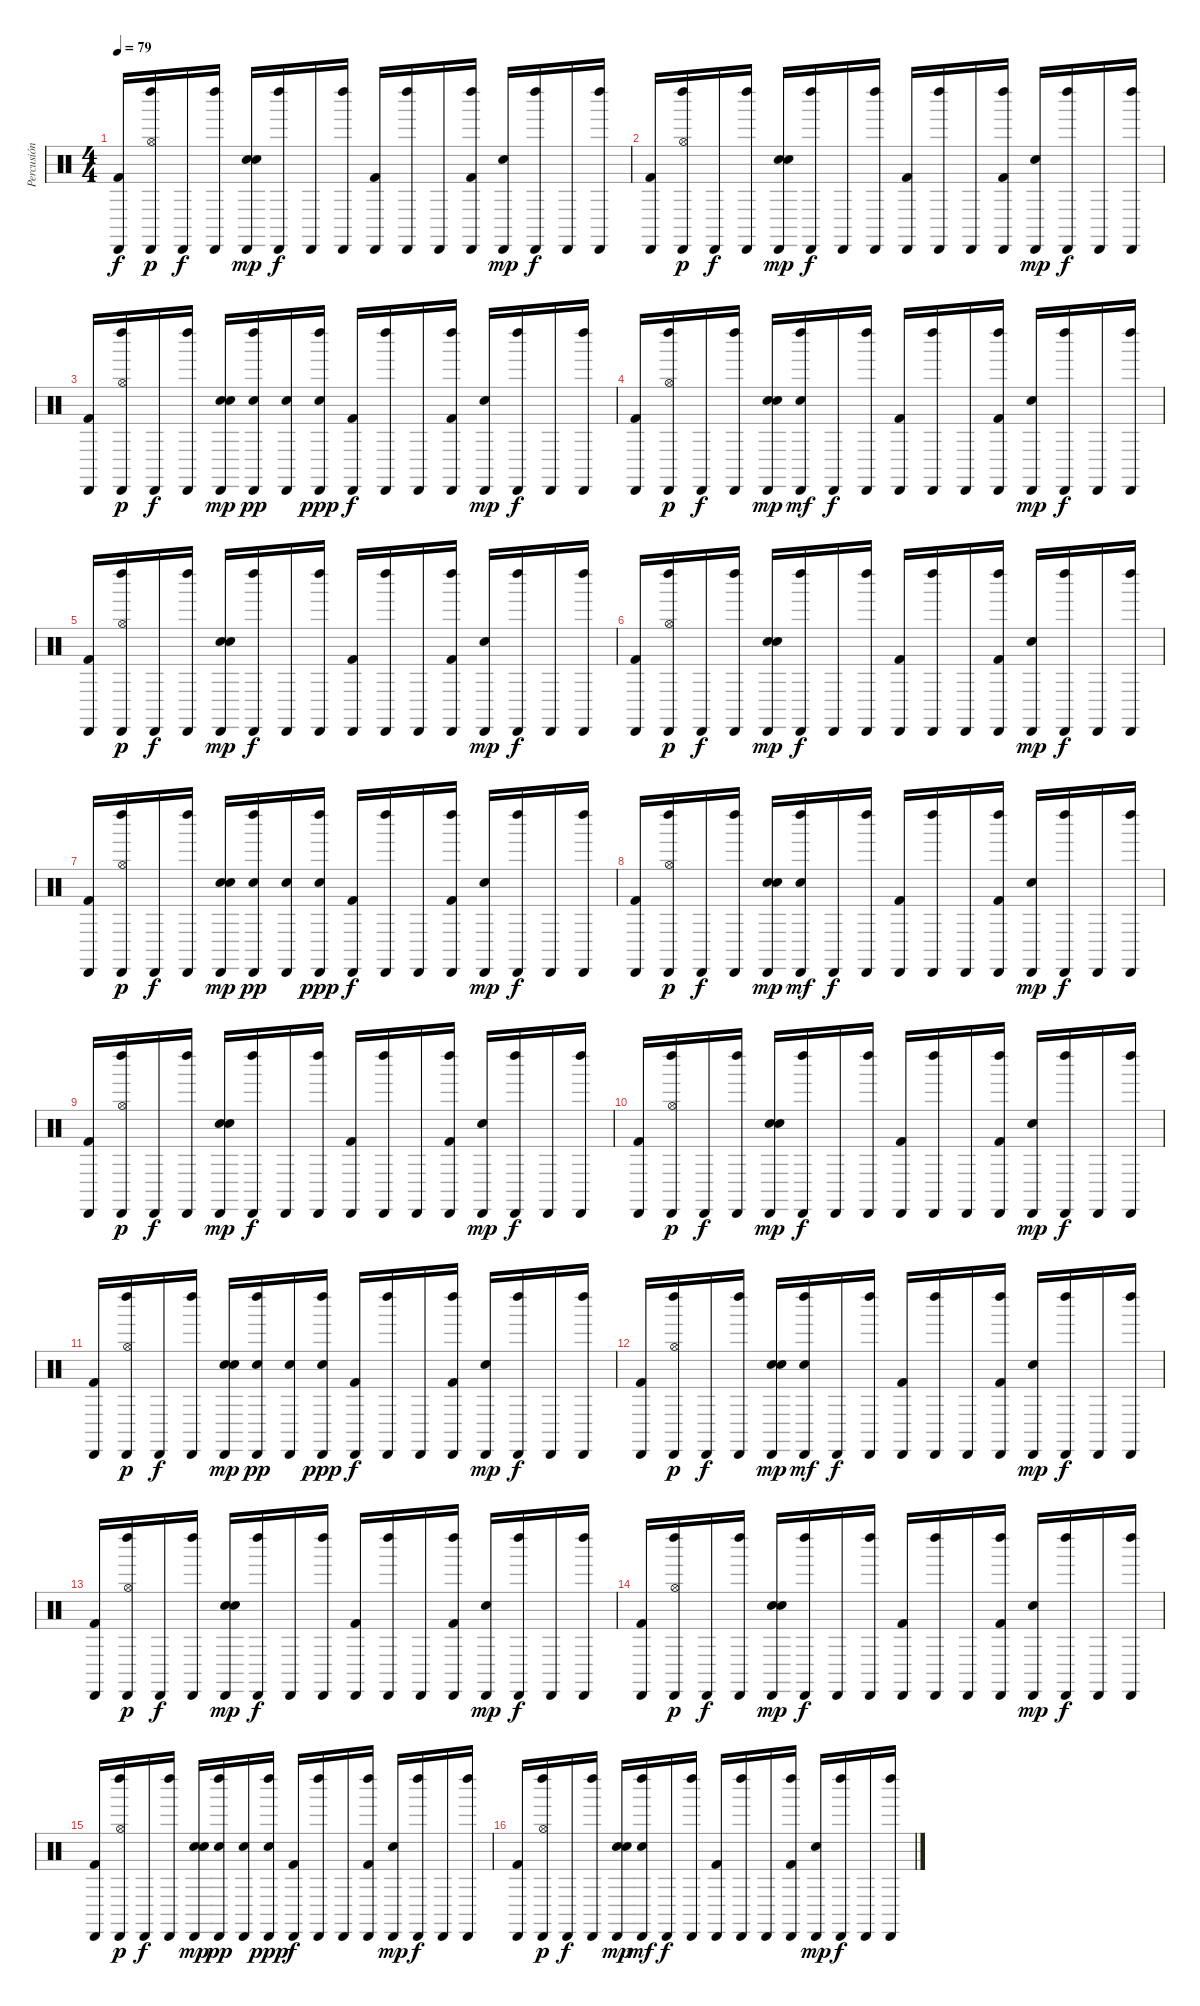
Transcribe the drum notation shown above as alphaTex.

\track ("Percusión" "Percusión") {instrument percussion}
\staff {score}
\articulation defaults
\ts (4 4)
\tempo 79
\clef neutral
\ks c
("Cabasa (hit)" "Kick (hit) 2").16{dy f} ("Cabasa (hit)" "Left Maraca (hit)" "Hi-Hat (open)").16{dy p} "Cabasa (hit)".16{dy f} ("Cabasa (hit)" "Left Maraca (hit)").16 ("Cabasa (hit)" "Electric Snare (hit)" "Snare (hit) 2").16{dy mp} ("Cabasa (hit)" "Left Maraca (hit)").16{dy f} "Cabasa (hit)".16 ("Cabasa (hit)" "Left Maraca (hit)").16 ("Cabasa (hit)" "Kick (hit) 2").16 ("Cabasa (hit)" "Left Maraca (hit)").16 "Cabasa (hit)".16 ("Cabasa (hit)" "Left Maraca (hit)" "Kick (hit) 2").16 ("Cabasa (hit)" "Electric Snare (hit)").16{dy mp} ("Cabasa (hit)" "Left Maraca (hit)").16{dy f} "Cabasa (hit)".16 ("Cabasa (hit)" "Left Maraca (hit)").16 |
("Cabasa (hit)" "Kick (hit) 2").16 ("Cabasa (hit)" "Left Maraca (hit)" "Hi-Hat (open)").16{dy p} "Cabasa (hit)".16{dy f} ("Cabasa (hit)" "Left Maraca (hit)").16 ("Cabasa (hit)" "Electric Snare (hit)" "Snare (hit) 2").16{dy mp} ("Cabasa (hit)" "Left Maraca (hit)").16{dy f} "Cabasa (hit)".16 ("Cabasa (hit)" "Left Maraca (hit)").16 ("Cabasa (hit)" "Kick (hit) 2").16 ("Cabasa (hit)" "Left Maraca (hit)").16 "Cabasa (hit)".16 ("Cabasa (hit)" "Left Maraca (hit)" "Kick (hit) 2").16 ("Cabasa (hit)" "Electric Snare (hit)").16{dy mp} ("Cabasa (hit)" "Left Maraca (hit)").16{dy f} "Cabasa (hit)".16 ("Cabasa (hit)" "Left Maraca (hit)").16 |
("Cabasa (hit)" "Kick (hit) 2").16 ("Cabasa (hit)" "Left Maraca (hit)" "Hi-Hat (open)").16{dy p} "Cabasa (hit)".16{dy f} ("Cabasa (hit)" "Left Maraca (hit)").16 ("Cabasa (hit)" "Electric Snare (hit)" "Snare (hit) 2").16{dy mp} ("Cabasa (hit)" "Left Maraca (hit)" "Electric Snare (hit)").16{dy pp} ("Cabasa (hit)" "Electric Snare (hit)").16 ("Cabasa (hit)" "Left Maraca (hit)" "Electric Snare (hit)").16{dy ppp} ("Cabasa (hit)" "Kick (hit) 2").16{dy f} ("Cabasa (hit)" "Left Maraca (hit)").16 "Cabasa (hit)".16 ("Cabasa (hit)" "Left Maraca (hit)" "Kick (hit) 2").16 ("Cabasa (hit)" "Electric Snare (hit)").16{dy mp} ("Cabasa (hit)" "Left Maraca (hit)").16{dy f} "Cabasa (hit)".16 ("Cabasa (hit)" "Left Maraca (hit)").16 |
("Cabasa (hit)" "Kick (hit) 2").16 ("Cabasa (hit)" "Left Maraca (hit)" "Hi-Hat (open)").16{dy p} "Cabasa (hit)".16{dy f} ("Cabasa (hit)" "Left Maraca (hit)").16 ("Cabasa (hit)" "Electric Snare (hit)" "Snare (hit) 2").16{dy mp} ("Cabasa (hit)" "Left Maraca (hit)" "Electric Snare (hit)").16{dy mf} "Cabasa (hit)".16{dy f} ("Cabasa (hit)" "Left Maraca (hit)").16 ("Cabasa (hit)" "Kick (hit) 2").16 ("Cabasa (hit)" "Left Maraca (hit)").16 "Cabasa (hit)".16 ("Cabasa (hit)" "Left Maraca (hit)" "Kick (hit) 2").16 ("Cabasa (hit)" "Electric Snare (hit)").16{dy mp} ("Cabasa (hit)" "Left Maraca (hit)").16{dy f} "Cabasa (hit)".16 ("Cabasa (hit)" "Left Maraca (hit)").16 |
("Cabasa (hit)" "Kick (hit) 2").16 ("Cabasa (hit)" "Left Maraca (hit)" "Hi-Hat (open)").16{dy p} "Cabasa (hit)".16{dy f} ("Cabasa (hit)" "Left Maraca (hit)").16 ("Cabasa (hit)" "Electric Snare (hit)" "Snare (hit) 2").16{dy mp} ("Cabasa (hit)" "Left Maraca (hit)").16{dy f} "Cabasa (hit)".16 ("Cabasa (hit)" "Left Maraca (hit)").16 ("Cabasa (hit)" "Kick (hit) 2").16 ("Cabasa (hit)" "Left Maraca (hit)").16 "Cabasa (hit)".16 ("Cabasa (hit)" "Left Maraca (hit)" "Kick (hit) 2").16 ("Cabasa (hit)" "Electric Snare (hit)").16{dy mp} ("Cabasa (hit)" "Left Maraca (hit)").16{dy f} "Cabasa (hit)".16 ("Cabasa (hit)" "Left Maraca (hit)").16 |
("Cabasa (hit)" "Kick (hit) 2").16 ("Cabasa (hit)" "Left Maraca (hit)" "Hi-Hat (open)").16{dy p} "Cabasa (hit)".16{dy f} ("Cabasa (hit)" "Left Maraca (hit)").16 ("Cabasa (hit)" "Electric Snare (hit)" "Snare (hit) 2").16{dy mp} ("Cabasa (hit)" "Left Maraca (hit)").16{dy f} "Cabasa (hit)".16 ("Cabasa (hit)" "Left Maraca (hit)").16 ("Cabasa (hit)" "Kick (hit) 2").16 ("Cabasa (hit)" "Left Maraca (hit)").16 "Cabasa (hit)".16 ("Cabasa (hit)" "Left Maraca (hit)" "Kick (hit) 2").16 ("Cabasa (hit)" "Electric Snare (hit)").16{dy mp} ("Cabasa (hit)" "Left Maraca (hit)").16{dy f} "Cabasa (hit)".16 ("Cabasa (hit)" "Left Maraca (hit)").16 |
("Cabasa (hit)" "Kick (hit) 2").16 ("Cabasa (hit)" "Left Maraca (hit)" "Hi-Hat (open)").16{dy p} "Cabasa (hit)".16{dy f} ("Cabasa (hit)" "Left Maraca (hit)").16 ("Cabasa (hit)" "Electric Snare (hit)" "Snare (hit) 2").16{dy mp} ("Cabasa (hit)" "Left Maraca (hit)" "Electric Snare (hit)").16{dy pp} ("Cabasa (hit)" "Electric Snare (hit)").16 ("Cabasa (hit)" "Left Maraca (hit)" "Electric Snare (hit)").16{dy ppp} ("Cabasa (hit)" "Kick (hit) 2").16{dy f} ("Cabasa (hit)" "Left Maraca (hit)").16 "Cabasa (hit)".16 ("Cabasa (hit)" "Left Maraca (hit)" "Kick (hit) 2").16 ("Cabasa (hit)" "Electric Snare (hit)").16{dy mp} ("Cabasa (hit)" "Left Maraca (hit)").16{dy f} "Cabasa (hit)".16 ("Cabasa (hit)" "Left Maraca (hit)").16 |
("Cabasa (hit)" "Kick (hit) 2").16 ("Cabasa (hit)" "Left Maraca (hit)" "Hi-Hat (open)").16{dy p} "Cabasa (hit)".16{dy f} ("Cabasa (hit)" "Left Maraca (hit)").16 ("Cabasa (hit)" "Electric Snare (hit)" "Snare (hit) 2").16{dy mp} ("Cabasa (hit)" "Left Maraca (hit)" "Electric Snare (hit)").16{dy mf} "Cabasa (hit)".16{dy f} ("Cabasa (hit)" "Left Maraca (hit)").16 ("Cabasa (hit)" "Kick (hit) 2").16 ("Cabasa (hit)" "Left Maraca (hit)").16 "Cabasa (hit)".16 ("Cabasa (hit)" "Left Maraca (hit)" "Kick (hit) 2").16 ("Cabasa (hit)" "Electric Snare (hit)").16{dy mp} ("Cabasa (hit)" "Left Maraca (hit)").16{dy f} "Cabasa (hit)".16 ("Cabasa (hit)" "Left Maraca (hit)").16 |
("Cabasa (hit)" "Kick (hit) 2").16 ("Cabasa (hit)" "Left Maraca (hit)" "Hi-Hat (open)").16{dy p} "Cabasa (hit)".16{dy f} ("Cabasa (hit)" "Left Maraca (hit)").16 ("Cabasa (hit)" "Electric Snare (hit)" "Snare (hit) 2").16{dy mp} ("Cabasa (hit)" "Left Maraca (hit)").16{dy f} "Cabasa (hit)".16 ("Cabasa (hit)" "Left Maraca (hit)").16 ("Cabasa (hit)" "Kick (hit) 2").16 ("Cabasa (hit)" "Left Maraca (hit)").16 "Cabasa (hit)".16 ("Cabasa (hit)" "Left Maraca (hit)" "Kick (hit) 2").16 ("Cabasa (hit)" "Electric Snare (hit)").16{dy mp} ("Cabasa (hit)" "Left Maraca (hit)").16{dy f} "Cabasa (hit)".16 ("Cabasa (hit)" "Left Maraca (hit)").16 |
("Cabasa (hit)" "Kick (hit) 2").16 ("Cabasa (hit)" "Left Maraca (hit)" "Hi-Hat (open)").16{dy p} "Cabasa (hit)".16{dy f} ("Cabasa (hit)" "Left Maraca (hit)").16 ("Cabasa (hit)" "Electric Snare (hit)" "Snare (hit) 2").16{dy mp} ("Cabasa (hit)" "Left Maraca (hit)").16{dy f} "Cabasa (hit)".16 ("Cabasa (hit)" "Left Maraca (hit)").16 ("Cabasa (hit)" "Kick (hit) 2").16 ("Cabasa (hit)" "Left Maraca (hit)").16 "Cabasa (hit)".16 ("Cabasa (hit)" "Left Maraca (hit)" "Kick (hit) 2").16 ("Cabasa (hit)" "Electric Snare (hit)").16{dy mp} ("Cabasa (hit)" "Left Maraca (hit)").16{dy f} "Cabasa (hit)".16 ("Cabasa (hit)" "Left Maraca (hit)").16 |
("Cabasa (hit)" "Kick (hit) 2").16 ("Cabasa (hit)" "Left Maraca (hit)" "Hi-Hat (open)").16{dy p} "Cabasa (hit)".16{dy f} ("Cabasa (hit)" "Left Maraca (hit)").16 ("Cabasa (hit)" "Electric Snare (hit)" "Snare (hit) 2").16{dy mp} ("Cabasa (hit)" "Left Maraca (hit)" "Electric Snare (hit)").16{dy pp} ("Cabasa (hit)" "Electric Snare (hit)").16 ("Cabasa (hit)" "Left Maraca (hit)" "Electric Snare (hit)").16{dy ppp} ("Cabasa (hit)" "Kick (hit) 2").16{dy f} ("Cabasa (hit)" "Left Maraca (hit)").16 "Cabasa (hit)".16 ("Cabasa (hit)" "Left Maraca (hit)" "Kick (hit) 2").16 ("Cabasa (hit)" "Electric Snare (hit)").16{dy mp} ("Cabasa (hit)" "Left Maraca (hit)").16{dy f} "Cabasa (hit)".16 ("Cabasa (hit)" "Left Maraca (hit)").16 |
("Cabasa (hit)" "Kick (hit) 2").16 ("Cabasa (hit)" "Left Maraca (hit)" "Hi-Hat (open)").16{dy p} "Cabasa (hit)".16{dy f} ("Cabasa (hit)" "Left Maraca (hit)").16 ("Cabasa (hit)" "Electric Snare (hit)" "Snare (hit) 2").16{dy mp} ("Cabasa (hit)" "Left Maraca (hit)" "Electric Snare (hit)").16{dy mf} "Cabasa (hit)".16{dy f} ("Cabasa (hit)" "Left Maraca (hit)").16 ("Cabasa (hit)" "Kick (hit) 2").16 ("Cabasa (hit)" "Left Maraca (hit)").16 "Cabasa (hit)".16 ("Cabasa (hit)" "Left Maraca (hit)" "Kick (hit) 2").16 ("Cabasa (hit)" "Electric Snare (hit)").16{dy mp} ("Cabasa (hit)" "Left Maraca (hit)").16{dy f} "Cabasa (hit)".16 ("Cabasa (hit)" "Left Maraca (hit)").16 |
("Cabasa (hit)" "Kick (hit) 2").16 ("Cabasa (hit)" "Left Maraca (hit)" "Hi-Hat (open)").16{dy p} "Cabasa (hit)".16{dy f} ("Cabasa (hit)" "Left Maraca (hit)").16 ("Cabasa (hit)" "Electric Snare (hit)" "Snare (hit) 2").16{dy mp} ("Cabasa (hit)" "Left Maraca (hit)").16{dy f} "Cabasa (hit)".16 ("Cabasa (hit)" "Left Maraca (hit)").16 ("Cabasa (hit)" "Kick (hit) 2").16 ("Cabasa (hit)" "Left Maraca (hit)").16 "Cabasa (hit)".16 ("Cabasa (hit)" "Left Maraca (hit)" "Kick (hit) 2").16 ("Cabasa (hit)" "Electric Snare (hit)").16{dy mp} ("Cabasa (hit)" "Left Maraca (hit)").16{dy f} "Cabasa (hit)".16 ("Cabasa (hit)" "Left Maraca (hit)").16 |
("Cabasa (hit)" "Kick (hit) 2").16 ("Cabasa (hit)" "Left Maraca (hit)" "Hi-Hat (open)").16{dy p} "Cabasa (hit)".16{dy f} ("Cabasa (hit)" "Left Maraca (hit)").16 ("Cabasa (hit)" "Electric Snare (hit)" "Snare (hit) 2").16{dy mp} ("Cabasa (hit)" "Left Maraca (hit)").16{dy f} "Cabasa (hit)".16 ("Cabasa (hit)" "Left Maraca (hit)").16 ("Cabasa (hit)" "Kick (hit) 2").16 ("Cabasa (hit)" "Left Maraca (hit)").16 "Cabasa (hit)".16 ("Cabasa (hit)" "Left Maraca (hit)" "Kick (hit) 2").16 ("Cabasa (hit)" "Electric Snare (hit)").16{dy mp} ("Cabasa (hit)" "Left Maraca (hit)").16{dy f} "Cabasa (hit)".16 ("Cabasa (hit)" "Left Maraca (hit)").16 |
("Cabasa (hit)" "Kick (hit) 2").16 ("Cabasa (hit)" "Left Maraca (hit)" "Hi-Hat (open)").16{dy p} "Cabasa (hit)".16{dy f} ("Cabasa (hit)" "Left Maraca (hit)").16 ("Cabasa (hit)" "Electric Snare (hit)" "Snare (hit) 2").16{dy mp} ("Cabasa (hit)" "Left Maraca (hit)" "Electric Snare (hit)").16{dy pp} ("Cabasa (hit)" "Electric Snare (hit)").16 ("Cabasa (hit)" "Left Maraca (hit)" "Electric Snare (hit)").16{dy ppp} ("Cabasa (hit)" "Kick (hit) 2").16{dy f} ("Cabasa (hit)" "Left Maraca (hit)").16 "Cabasa (hit)".16 ("Cabasa (hit)" "Left Maraca (hit)" "Kick (hit) 2").16 ("Cabasa (hit)" "Electric Snare (hit)").16{dy mp} ("Cabasa (hit)" "Left Maraca (hit)").16{dy f} "Cabasa (hit)".16 ("Cabasa (hit)" "Left Maraca (hit)").16 |
("Cabasa (hit)" "Kick (hit) 2").16 ("Cabasa (hit)" "Left Maraca (hit)" "Hi-Hat (open)").16{dy p} "Cabasa (hit)".16{dy f} ("Cabasa (hit)" "Left Maraca (hit)").16 ("Cabasa (hit)" "Electric Snare (hit)" "Snare (hit) 2").16{dy mp} ("Cabasa (hit)" "Left Maraca (hit)" "Electric Snare (hit)").16{dy mf} "Cabasa (hit)".16{dy f} ("Cabasa (hit)" "Left Maraca (hit)").16 ("Cabasa (hit)" "Kick (hit) 2").16 ("Cabasa (hit)" "Left Maraca (hit)").16 "Cabasa (hit)".16 ("Cabasa (hit)" "Left Maraca (hit)" "Kick (hit) 2").16 ("Cabasa (hit)" "Electric Snare (hit)").16{dy mp} ("Cabasa (hit)" "Left Maraca (hit)").16{dy f} "Cabasa (hit)".16 ("Cabasa (hit)" "Left Maraca (hit)").16
